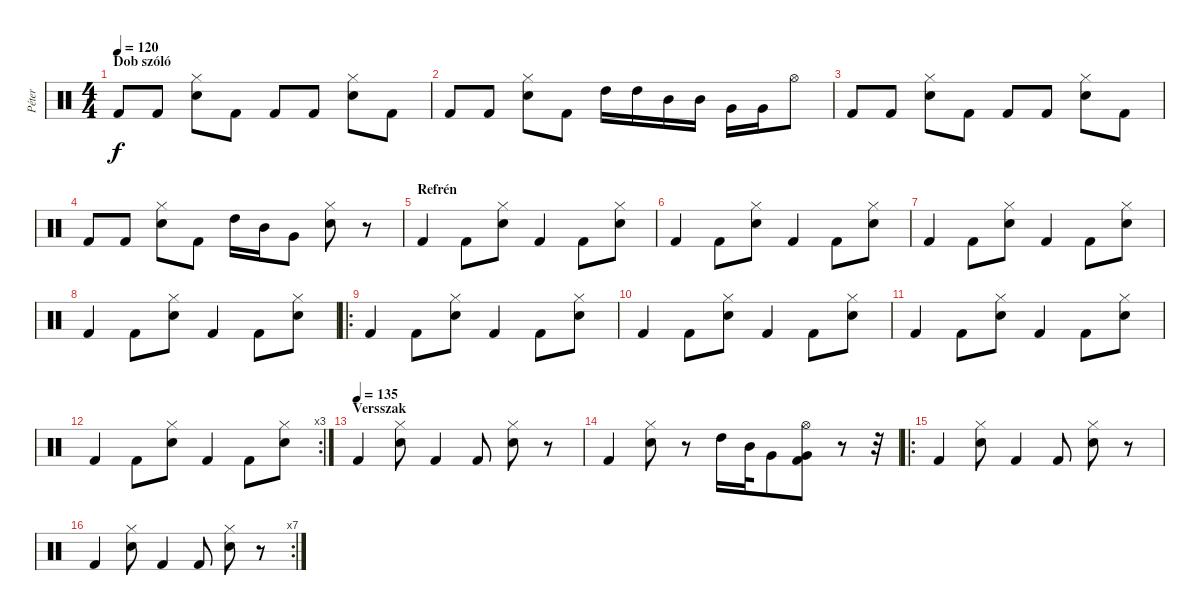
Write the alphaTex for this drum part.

\track ("Péter" "Péter") {instrument percussion}
\staff {score}
\articulation defaults
\ts (4 4)
\section ("" "Dob szóló")
\tempo 120
\clef neutral
\ks c "Kick (hit) 2".8{dy f} "Kick (hit) 2".8
("Electric Snare (hit)" "Hi-Hat (closed)").8 "Kick (hit) 2".8 "Kick (hit) 2".8 "Kick (hit) 2".8 ("Electric Snare (hit)" "Hi-Hat (closed)").8 "Kick (hit) 2".8 |
"Kick (hit) 2".8 "Kick (hit) 2".8 ("Electric Snare (hit)" "Hi-Hat (closed)").8 "Kick (hit) 2".8 "High Tom (hit)".16 "High Tom (hit)".16 "Mid Tom (hit)".16 "Mid Tom (hit)".16 "Very Low Tom (hit)".16 "Very Low Tom (hit)".16 "Hi-Hat (open)".8 |
"Kick (hit) 2".8 "Kick (hit) 2".8 ("Electric Snare (hit)" "Hi-Hat (closed)").8 "Kick (hit) 2".8 "Kick (hit) 2".8 "Kick (hit) 2".8 ("Electric Snare (hit)" "Hi-Hat (closed)").8 "Kick (hit) 2".8 |
"Kick (hit) 2".8 "Kick (hit) 2".8 ("Electric Snare (hit)" "Hi-Hat (closed)").8 "Kick (hit) 2".8 "High Tom (hit)".16 "Mid Tom (hit)".16 "Very Low Tom (hit)".8 ("Hi-Hat (closed)" "Electric Snare (hit)").8 r.8 |
\section ("" "Refrén")
"Kick (hit) 2".4 "Kick (hit) 2".8 ("Hi-Hat (closed)" "Electric Snare (hit)").8 "Kick (hit) 2".4 "Kick (hit) 2".8 ("Hi-Hat (closed)" "Electric Snare (hit)").8 |
"Kick (hit) 2".4 "Kick (hit) 2".8 ("Hi-Hat (closed)" "Electric Snare (hit)").8 "Kick (hit) 2".4 "Kick (hit) 2".8 ("Hi-Hat (closed)" "Electric Snare (hit)").8 |
"Kick (hit) 2".4 "Kick (hit) 2".8 ("Hi-Hat (closed)" "Electric Snare (hit)").8 "Kick (hit) 2".4 "Kick (hit) 2".8 ("Hi-Hat (closed)" "Electric Snare (hit)").8 |
"Kick (hit) 2".4 "Kick (hit) 2".8 ("Hi-Hat (closed)" "Electric Snare (hit)").8 "Kick (hit) 2".4 "Kick (hit) 2".8 ("Hi-Hat (closed)" "Electric Snare (hit)").8 |
\ro "Kick (hit) 2".4 "Kick (hit) 2".8
("Hi-Hat (closed)" "Electric Snare (hit)").8 "Kick (hit) 2".4 "Kick (hit) 2".8 ("Hi-Hat (closed)" "Electric Snare (hit)").8 |
"Kick (hit) 2".4 "Kick (hit) 2".8 ("Hi-Hat (closed)" "Electric Snare (hit)").8 "Kick (hit) 2".4 "Kick (hit) 2".8 ("Hi-Hat (closed)" "Electric Snare (hit)").8 |
"Kick (hit) 2".4 "Kick (hit) 2".8 ("Hi-Hat (closed)" "Electric Snare (hit)").8 "Kick (hit) 2".4 "Kick (hit) 2".8 ("Hi-Hat (closed)" "Electric Snare (hit)").8 |
\rc 3 "Kick (hit) 2".4 "Kick (hit) 2".8
("Hi-Hat (closed)" "Electric Snare (hit)").8 "Kick (hit) 2".4 "Kick (hit) 2".8 ("Hi-Hat (closed)" "Electric Snare (hit)").8 |
\section ("" "Versszak")
\tempo (135)
"Kick (hit) 2".4 ("Electric Snare (hit)" "Hi-Hat (closed)").8 "Kick (hit) 2".4 "Kick (hit) 2".8 ("Electric Snare (hit)" "Hi-Hat (closed)").8 r.8 |
"Kick (hit) 2".4 ("Electric Snare (hit)" "Hi-Hat (closed)").8 r.8 "High Tom (hit)".16 "Mid Tom (hit)".32 "Very Low Tom (hit)".8 ("Very Low Tom (hit)" "Kick (hit) 2" "Hi-Hat (open)").8 r.8 r.32 |
\ro "Kick (hit) 2".4
("Electric Snare (hit)" "Hi-Hat (closed)").8 "Kick (hit) 2".4 "Kick (hit) 2".8 ("Electric Snare (hit)" "Hi-Hat (closed)").8 r.8 |
\rc 7 "Kick (hit) 2".4
("Electric Snare (hit)" "Hi-Hat (closed)").8 "Kick (hit) 2".4 "Kick (hit) 2".8 ("Electric Snare (hit)" "Hi-Hat (closed)").8 r.8
